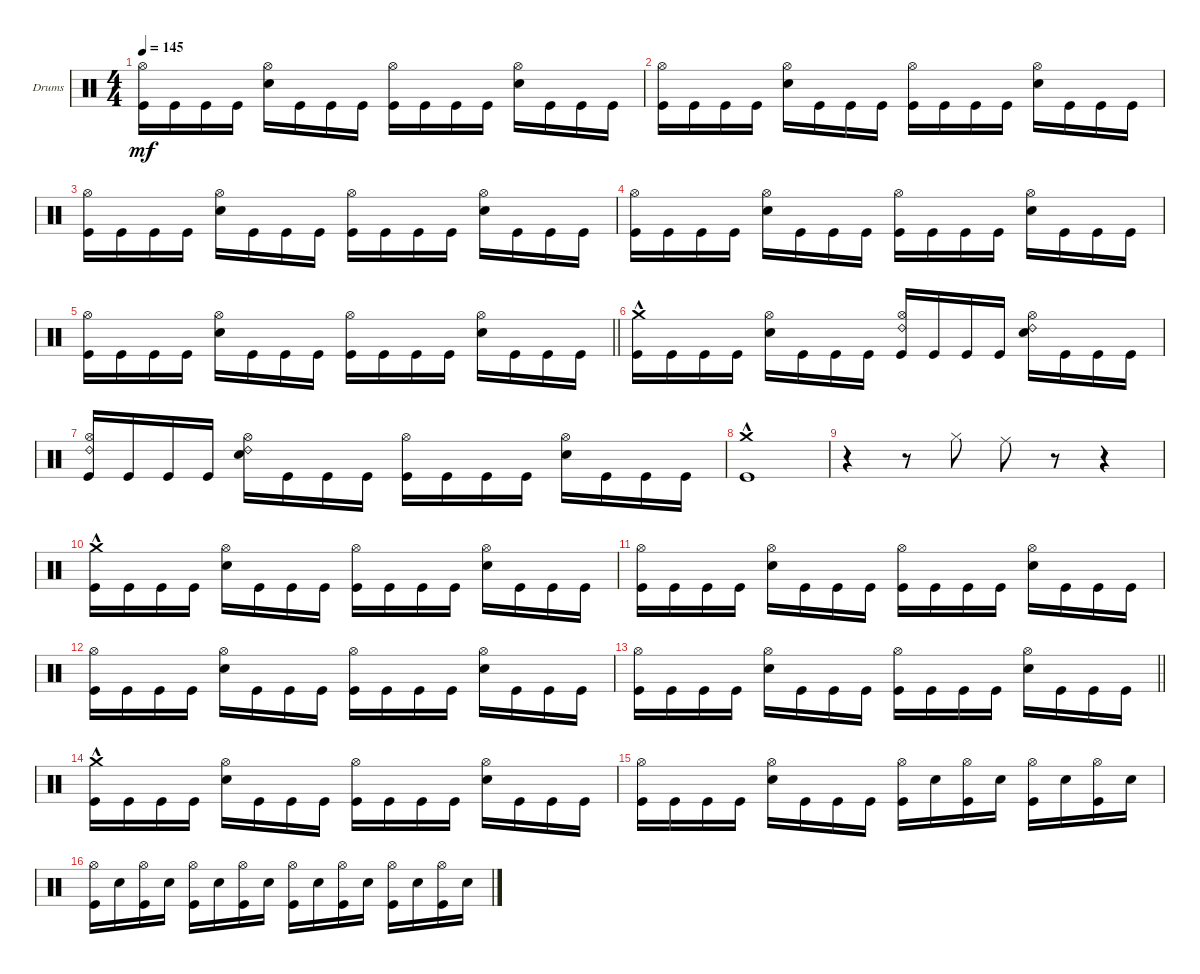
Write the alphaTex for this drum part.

\defaultSystemsLayout 4
\bracketExtendMode groupsimilarinstruments
\firstSystemTrackNameOrientation horizontal
\otherSystemsTrackNameOrientation horizontal
\track ("Drumkit" "Drums") {instrument percussion}
\staff {score}
\articulation defaults
\ts (4 4)
\tempo 145
\clef neutral
\ks c
("Kick (hit)" "Hi-Hat (open)").16{dy mf} "Kick (hit)".16 "Kick (hit)".16 "Kick (hit)".16 ("Snare (hit) 2" "Hi-Hat (open)").16 "Kick (hit)".16 "Kick (hit)".16 "Kick (hit)".16 ("Kick (hit)" "Hi-Hat (open)").16 "Kick (hit)".16 "Kick (hit)".16 "Kick (hit)".16 ("Snare (hit) 2" "Hi-Hat (open)").16 "Kick (hit)".16 "Kick (hit)".16 "Kick (hit)".16 |
("Kick (hit)" "Hi-Hat (open)").16 "Kick (hit)".16 "Kick (hit)".16 "Kick (hit)".16 ("Snare (hit) 2" "Hi-Hat (open)").16 "Kick (hit)".16 "Kick (hit)".16 "Kick (hit)".16 ("Kick (hit)" "Hi-Hat (open)").16 "Kick (hit)".16 "Kick (hit)".16 "Kick (hit)".16 ("Snare (hit) 2" "Hi-Hat (open)").16 "Kick (hit)".16 "Kick (hit)".16 "Kick (hit)".16 |
("Kick (hit)" "Hi-Hat (open)").16 "Kick (hit)".16 "Kick (hit)".16 "Kick (hit)".16 ("Snare (hit) 2" "Hi-Hat (open)").16 "Kick (hit)".16 "Kick (hit)".16 "Kick (hit)".16 ("Kick (hit)" "Hi-Hat (open)").16 "Kick (hit)".16 "Kick (hit)".16 "Kick (hit)".16 ("Snare (hit) 2" "Hi-Hat (open)").16 "Kick (hit)".16 "Kick (hit)".16 "Kick (hit)".16 |
("Kick (hit)" "Hi-Hat (open)").16 "Kick (hit)".16 "Kick (hit)".16 "Kick (hit)".16 ("Snare (hit) 2" "Hi-Hat (open)").16 "Kick (hit)".16 "Kick (hit)".16 "Kick (hit)".16 ("Kick (hit)" "Hi-Hat (open)").16 "Kick (hit)".16 "Kick (hit)".16 "Kick (hit)".16 ("Snare (hit) 2" "Hi-Hat (open)").16 "Kick (hit)".16 "Kick (hit)".16 "Kick (hit)".16 |
\barLineRight lightlight
("Kick (hit)" "Hi-Hat (open)").16 "Kick (hit)".16 "Kick (hit)".16 "Kick (hit)".16 ("Snare (hit) 2" "Hi-Hat (open)").16 "Kick (hit)".16 "Kick (hit)".16 "Kick (hit)".16 ("Kick (hit)" "Hi-Hat (open)").16 "Kick (hit)".16 "Kick (hit)".16 "Kick (hit)".16 ("Snare (hit) 2" "Hi-Hat (open)").16 "Kick (hit)".16 "Kick (hit)".16 "Kick (hit)".16 |
("Kick (hit)" "Crash medium (hit)"{hac}).16 "Kick (hit)".16 "Kick (hit)".16 "Kick (hit)".16 ("Snare (hit) 2" "Hi-Hat (open)").16 "Kick (hit)".16 "Kick (hit)".16 "Kick (hit)".16 ("Kick (hit)" "Hi-Hat (open)" "Ride (bell) 2").16 "Kick (hit)".16 "Kick (hit)".16 "Kick (hit)".16 ("Snare (hit) 2" "Hi-Hat (open)" "Ride (bell) 2").16 "Kick (hit)".16 "Kick (hit)".16 "Kick (hit)".16 |
("Kick (hit)" "Hi-Hat (open)" "Ride (bell) 2").16 "Kick (hit)".16 "Kick (hit)".16 "Kick (hit)".16 ("Snare (hit) 2" "Hi-Hat (open)" "Ride (bell) 2").16 "Kick (hit)".16 "Kick (hit)".16 "Kick (hit)".16 ("Kick (hit)" "Hi-Hat (open)").16 "Kick (hit)".16 "Kick (hit)".16 "Kick (hit)".16 ("Snare (hit) 2" "Hi-Hat (open)").16 "Kick (hit)".16 "Kick (hit)".16 "Kick (hit)".16 |
("Kick (hit)" "Crash medium (hit)"{hac}).1 |
r.4 r.8 "Hi-Hat (closed)".8 "Ride (middle)".8 r.8 r.4 |
("Kick (hit)" "Crash medium (hit)"{hac}).16 "Kick (hit)".16 "Kick (hit)".16 "Kick (hit)".16 ("Snare (hit) 2" "Hi-Hat (open)").16 "Kick (hit)".16 "Kick (hit)".16 "Kick (hit)".16 ("Kick (hit)" "Hi-Hat (open)").16 "Kick (hit)".16 "Kick (hit)".16 "Kick (hit)".16 ("Snare (hit) 2" "Hi-Hat (open)").16 "Kick (hit)".16 "Kick (hit)".16 "Kick (hit)".16 |
("Kick (hit)" "Hi-Hat (open)").16 "Kick (hit)".16 "Kick (hit)".16 "Kick (hit)".16 ("Snare (hit) 2" "Hi-Hat (open)").16 "Kick (hit)".16 "Kick (hit)".16 "Kick (hit)".16 ("Kick (hit)" "Hi-Hat (open)").16 "Kick (hit)".16 "Kick (hit)".16 "Kick (hit)".16 ("Snare (hit) 2" "Hi-Hat (open)").16 "Kick (hit)".16 "Kick (hit)".16 "Kick (hit)".16 |
("Kick (hit)" "Hi-Hat (open)").16 "Kick (hit)".16 "Kick (hit)".16 "Kick (hit)".16 ("Snare (hit) 2" "Hi-Hat (open)").16 "Kick (hit)".16 "Kick (hit)".16 "Kick (hit)".16 ("Kick (hit)" "Hi-Hat (open)").16 "Kick (hit)".16 "Kick (hit)".16 "Kick (hit)".16 ("Snare (hit) 2" "Hi-Hat (open)").16 "Kick (hit)".16 "Kick (hit)".16 "Kick (hit)".16 |
\barLineRight lightlight
("Kick (hit)" "Hi-Hat (open)").16 "Kick (hit)".16 "Kick (hit)".16 "Kick (hit)".16 ("Snare (hit) 2" "Hi-Hat (open)").16 "Kick (hit)".16 "Kick (hit)".16 "Kick (hit)".16 ("Kick (hit)" "Hi-Hat (open)").16 "Kick (hit)".16 "Kick (hit)".16 "Kick (hit)".16 ("Snare (hit) 2" "Hi-Hat (open)").16 "Kick (hit)".16 "Kick (hit)".16 "Kick (hit)".16 |
("Kick (hit)" "Crash medium (hit)"{hac}).16 "Kick (hit)".16 "Kick (hit)".16 "Kick (hit)".16 ("Snare (hit) 2" "Hi-Hat (open)").16 "Kick (hit)".16 "Kick (hit)".16 "Kick (hit)".16 ("Kick (hit)" "Hi-Hat (open)").16 "Kick (hit)".16 "Kick (hit)".16 "Kick (hit)".16 ("Snare (hit) 2" "Hi-Hat (open)").16 "Kick (hit)".16 "Kick (hit)".16 "Kick (hit)".16 |
("Kick (hit)" "Hi-Hat (open)").16 "Kick (hit)".16 "Kick (hit)".16 "Kick (hit)".16 ("Snare (hit) 2" "Hi-Hat (open)").16 "Kick (hit)".16 "Kick (hit)".16 "Kick (hit)".16 ("Kick (hit)" "Hi-Hat (open)").16 "Snare (hit) 2".16 ("Kick (hit)" "Hi-Hat (open)").16 "Snare (hit) 2".16 ("Kick (hit)" "Hi-Hat (open)").16 "Snare (hit) 2".16 ("Kick (hit)" "Hi-Hat (open)").16 "Snare (hit) 2".16 |
("Kick (hit)" "Hi-Hat (open)").16 "Snare (hit) 2".16 ("Kick (hit)" "Hi-Hat (open)").16 "Snare (hit) 2".16 ("Kick (hit)" "Hi-Hat (open)").16 "Snare (hit) 2".16 ("Kick (hit)" "Hi-Hat (open)").16 "Snare (hit) 2".16 ("Kick (hit)" "Hi-Hat (open)").16 "Snare (hit) 2".16 ("Kick (hit)" "Hi-Hat (open)").16 "Snare (hit) 2".16 ("Kick (hit)" "Hi-Hat (open)").16 "Snare (hit) 2".16 ("Kick (hit)" "Hi-Hat (open)").16 "Snare (hit) 2".16
